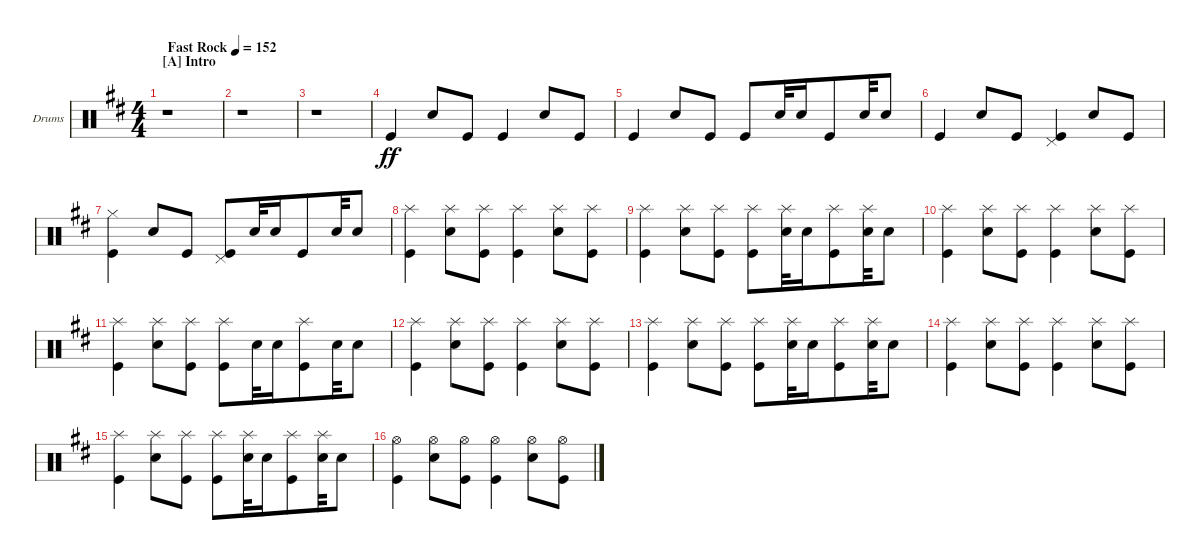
\defaultSystemsLayout 4
\bracketExtendMode groupsimilarinstruments
\firstSystemTrackNameOrientation horizontal
\otherSystemsTrackNameOrientation horizontal
\track ("Drumkit" "Drums") {instrument percussion}
\staff {score}
\articulation defaults
\ts (4 4)
\beaming (8 4 4)
\section ("A" "Intro")
\tempo (152 "Fast Rock")
\clef neutral
\ks d
r.1{dy ff} |
r.1 |
r.1 |
"Kick (hit)".4 "Snare (hit) 2".8 "Kick (hit)".8 "Kick (hit)".4 "Snare (hit) 2".8 "Kick (hit)".8 |
"Kick (hit)".4 "Snare (hit) 2".8 "Kick (hit)".8 "Kick (hit)".8 "Snare (hit) 2".32 "Snare (hit) 2".16 "Kick (hit)".8 "Snare (hit) 2".32 "Snare (hit) 2".8 |
"Kick (hit)".4 "Snare (hit) 2".8 "Kick (hit)".8 ("Kick (hit)" "Pedal Hi-Hat (hit)").4 "Snare (hit) 2".8 "Kick (hit)".8 |
("Kick (hit)" "Hi-Hat (closed)").4 "Snare (hit) 2".8 "Kick (hit)".8 ("Kick (hit)" "Pedal Hi-Hat (hit)").8 "Snare (hit) 2".32 "Snare (hit) 2".16 "Kick (hit)".8 "Snare (hit) 2".32 "Snare (hit) 2".8 |
("Kick (hit)" "Splash (hit)").4 ("Snare (hit) 2" "Splash (hit)").8 ("Kick (hit)" "Splash (hit)").8 ("Kick (hit)" "Splash (hit)").4 ("Snare (hit) 2" "Splash (hit)").8 ("Kick (hit)" "Splash (hit)").8 |
("Kick (hit)" "Splash (hit)").4 ("Snare (hit) 2" "Splash (hit)").8 ("Kick (hit)" "Splash (hit)").8 ("Kick (hit)" "Splash (hit)").8 ("Snare (hit) 2" "Splash (hit)").32 "Snare (hit) 2".16 ("Kick (hit)" "Splash (hit)").8 ("Snare (hit) 2" "Splash (hit)").32 "Snare (hit) 2".8 |
("Kick (hit)" "Splash (hit)").4 ("Snare (hit) 2" "Splash (hit)").8 ("Kick (hit)" "Splash (hit)").8 ("Kick (hit)" "Splash (hit)").4 ("Snare (hit) 2" "Splash (hit)").8 ("Kick (hit)" "Splash (hit)").8 |
("Kick (hit)" "Splash (hit)").4 ("Snare (hit) 2" "Splash (hit)").8 ("Kick (hit)" "Splash (hit)").8 ("Kick (hit)" "Splash (hit)").8 "Snare (hit) 2".32 "Snare (hit) 2".16 ("Kick (hit)" "Splash (hit)").8 "Snare (hit) 2".32 "Snare (hit) 2".8 |
("Kick (hit)" "Splash (hit)").4 ("Snare (hit) 2" "Splash (hit)").8 ("Kick (hit)" "Splash (hit)").8 ("Kick (hit)" "Splash (hit)").4 ("Snare (hit) 2" "Splash (hit)").8 ("Kick (hit)" "Splash (hit)").8 |
("Kick (hit)" "Splash (hit)").4 ("Snare (hit) 2" "Splash (hit)").8 ("Kick (hit)" "Splash (hit)").8 ("Kick (hit)" "Splash (hit)").8 ("Snare (hit) 2" "Splash (hit)").32 "Snare (hit) 2".16 ("Kick (hit)" "Splash (hit)").8 ("Snare (hit) 2" "Splash (hit)").32 "Snare (hit) 2".8 |
("Kick (hit)" "Splash (hit)").4 ("Snare (hit) 2" "Splash (hit)").8 ("Kick (hit)" "Splash (hit)").8 ("Kick (hit)" "Splash (hit)").4 ("Snare (hit) 2" "Splash (hit)").8 ("Kick (hit)" "Splash (hit)").8 |
("Kick (hit)" "Splash (hit)").4 ("Snare (hit) 2" "Splash (hit)").8 ("Kick (hit)" "Splash (hit)").8 ("Kick (hit)" "Splash (hit)").8 ("Snare (hit) 2" "Splash (hit)").32 "Snare (hit) 2".16 ("Kick (hit)" "Splash (hit)").8 ("Snare (hit) 2" "Splash (hit)").32 "Snare (hit) 2".8 |
("Kick (hit)" "Hi-Hat (open)").4 ("Snare (hit) 2" "Hi-Hat (open)").8 ("Kick (hit)" "Hi-Hat (open)").8 ("Kick (hit)" "Hi-Hat (open)").4 ("Snare (hit) 2" "Hi-Hat (open)").8 ("Kick (hit)" "Hi-Hat (open)").8
